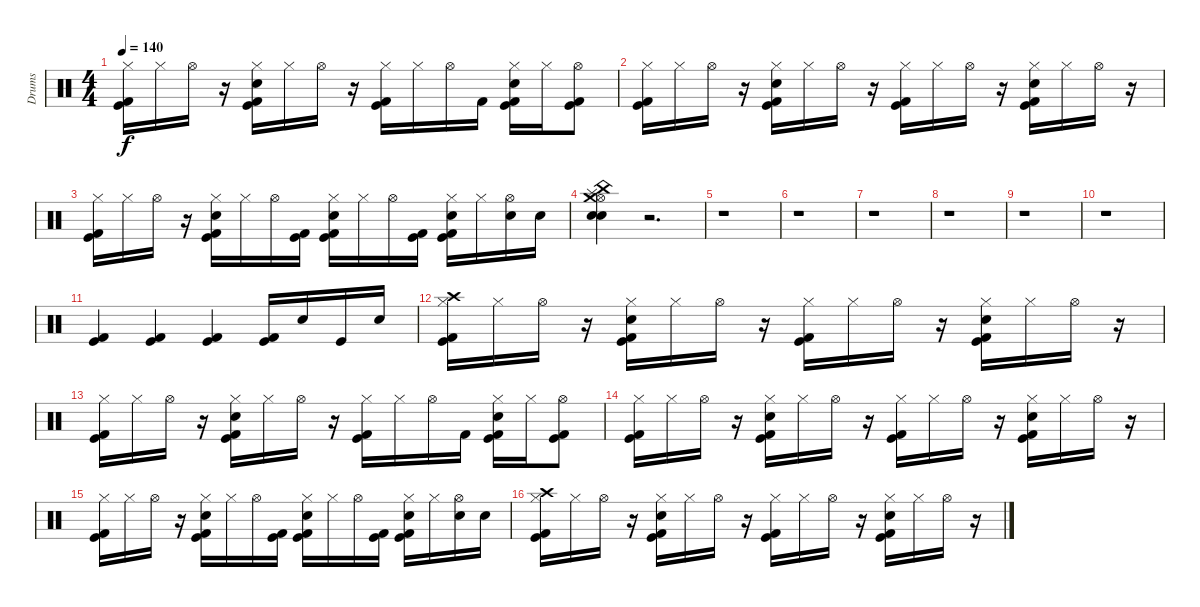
\track ("Drums" "Drums") {instrument percussion}
\staff {score}
\articulation defaults
\ts (4 4)
\tempo 140
\clef neutral
\ks c
("Hi-Hat (closed)" "Kick (hit) 2" "Kick (hit)").16{dy f} "Hi-Hat (closed)".16 "Hi-Hat (open)".16 r.16 ("Snare (hit) 2" "Kick (hit) 2" "Kick (hit)" "Hi-Hat (closed)").16 "Hi-Hat (closed)".16 "Hi-Hat (open)".16 r.16 ("Kick (hit)" "Kick (hit) 2" "Hi-Hat (closed)").16 "Hi-Hat (closed)".16 "Hi-Hat (open)".16 "Kick (hit) 2".16 ("Hi-Hat (closed)" "Kick (hit)" "Kick (hit) 2" "Snare (hit) 2").16 "Hi-Hat (closed)".16 ("Kick (hit)" "Hi-Hat (open)" "Kick (hit) 2").8 |
("Hi-Hat (closed)" "Kick (hit)" "Kick (hit) 2").16 "Hi-Hat (closed)".16 "Hi-Hat (open)".16 r.16 ("Kick (hit) 2" "Hi-Hat (closed)" "Kick (hit)" "Snare (hit) 2").16 "Hi-Hat (closed)".16 "Hi-Hat (open)".16 r.16 ("Hi-Hat (closed)" "Kick (hit)" "Kick (hit) 2").16 "Hi-Hat (closed)".16 "Hi-Hat (open)".16 r.16 ("Kick (hit) 2" "Kick (hit)" "Hi-Hat (closed)" "Snare (hit) 2").16 "Hi-Hat (closed)".16 "Hi-Hat (open)".16 r.16 |
("Kick (hit)" "Kick (hit) 2" "Hi-Hat (closed)").16 "Hi-Hat (closed)".16 "Hi-Hat (open)".16 r.16 ("Kick (hit)" "Kick (hit) 2" "Snare (hit) 2" "Hi-Hat (closed)").16 "Hi-Hat (closed)".16 "Hi-Hat (open)".16 ("Kick (hit) 2" "Kick (hit)").16 ("Snare (hit) 2" "Kick (hit) 2" "Kick (hit)" "Hi-Hat (closed)").16 "Hi-Hat (closed)".16 "Hi-Hat (open)".16 ("Kick (hit) 2" "Kick (hit)").16 ("Kick (hit) 2" "Hi-Hat (closed)" "Snare (hit) 2" "Kick (hit)").16 "Hi-Hat (closed)".16 ("Snare (hit) 2" "Hi-Hat (open)").16 "Snare (hit) 2".16 |
("Hi-Hat (open)" "Electric Snare (hit)" "Snare (hit) 2" "Crash medium (hit)" "Splash (hit)" "China (hit)").4 r.2{d} |
r.1 |
r.1 |
r.1 |
r.1 |
r.1 |
r.1 |
("Kick (hit) 2" "Kick (hit)").4 ("Kick (hit) 2" "Kick (hit)").4 ("Kick (hit)" "Kick (hit) 2").4 ("Kick (hit)" "Kick (hit) 2").16 "Snare (hit) 2".16 "Kick (hit)".16 "Snare (hit) 2".16 |
("Hi-Hat (closed)" "Kick (hit)" "Kick (hit) 2" "Crash high (hit)").16 "Hi-Hat (closed)".16 "Hi-Hat (open)".16 r.16 ("Kick (hit)" "Hi-Hat (closed)" "Kick (hit) 2" "Snare (hit) 2").16 "Hi-Hat (closed)".16 "Hi-Hat (open)".16 r.16 ("Kick (hit)" "Kick (hit) 2" "Hi-Hat (closed)").16 "Hi-Hat (closed)".16 "Hi-Hat (open)".16 r.16 ("Kick (hit) 2" "Hi-Hat (closed)" "Snare (hit) 2" "Kick (hit)").16 "Hi-Hat (closed)".16 "Hi-Hat (open)".16 r.16 |
("Kick (hit) 2" "Hi-Hat (closed)" "Kick (hit)").16 "Hi-Hat (closed)".16 "Hi-Hat (open)".16 r.16 ("Kick (hit) 2" "Kick (hit)" "Hi-Hat (closed)" "Snare (hit) 2").16 "Hi-Hat (closed)".16 "Hi-Hat (open)".16 r.16 ("Kick (hit) 2" "Hi-Hat (closed)" "Kick (hit)").16 "Hi-Hat (closed)".16 "Hi-Hat (open)".16 "Kick (hit) 2".16 ("Kick (hit) 2" "Kick (hit)" "Snare (hit) 2" "Hi-Hat (closed)").16 "Hi-Hat (closed)".16 ("Kick (hit)" "Hi-Hat (open)" "Kick (hit) 2").8 |
("Kick (hit) 2" "Kick (hit)" "Hi-Hat (closed)").16 "Hi-Hat (closed)".16 "Hi-Hat (open)".16 r.16 ("Kick (hit)" "Kick (hit) 2" "Hi-Hat (closed)" "Snare (hit) 2").16 "Hi-Hat (closed)".16 "Hi-Hat (open)".16 r.16 ("Kick (hit) 2" "Kick (hit)" "Hi-Hat (closed)").16 "Hi-Hat (closed)".16 "Hi-Hat (open)".16 r.16 ("Snare (hit) 2" "Kick (hit)" "Kick (hit) 2" "Hi-Hat (closed)").16 "Hi-Hat (closed)".16 "Hi-Hat (open)".16 r.16 |
("Kick (hit) 2" "Kick (hit)" "Hi-Hat (closed)").16 "Hi-Hat (closed)".16 "Hi-Hat (open)".16 r.16 ("Kick (hit) 2" "Hi-Hat (closed)" "Kick (hit)" "Snare (hit) 2").16 "Hi-Hat (closed)".16 "Hi-Hat (open)".16 ("Kick (hit)" "Kick (hit) 2").16 ("Snare (hit) 2" "Kick (hit) 2" "Kick (hit)" "Hi-Hat (closed)").16 "Hi-Hat (closed)".16 "Hi-Hat (open)".16 ("Kick (hit) 2" "Kick (hit)").16 ("Kick (hit) 2" "Hi-Hat (closed)" "Snare (hit) 2" "Kick (hit)").16 "Hi-Hat (closed)".16 ("Hi-Hat (open)" "Snare (hit) 2").16 "Snare (hit) 2".16 |
("Kick (hit)" "Crash high (hit)" "Kick (hit) 2" "Hi-Hat (closed)").16 "Hi-Hat (closed)".16 "Hi-Hat (open)".16 r.16 ("Kick (hit)" "Hi-Hat (closed)" "Kick (hit) 2" "Snare (hit) 2").16 "Hi-Hat (closed)".16 "Hi-Hat (open)".16 r.16 ("Kick (hit)" "Kick (hit) 2" "Hi-Hat (closed)").16 "Hi-Hat (closed)".16 "Hi-Hat (open)".16 r.16 ("Kick (hit)" "Hi-Hat (closed)" "Snare (hit) 2" "Kick (hit) 2").16 "Hi-Hat (closed)".16 "Hi-Hat (open)".16 r.16
